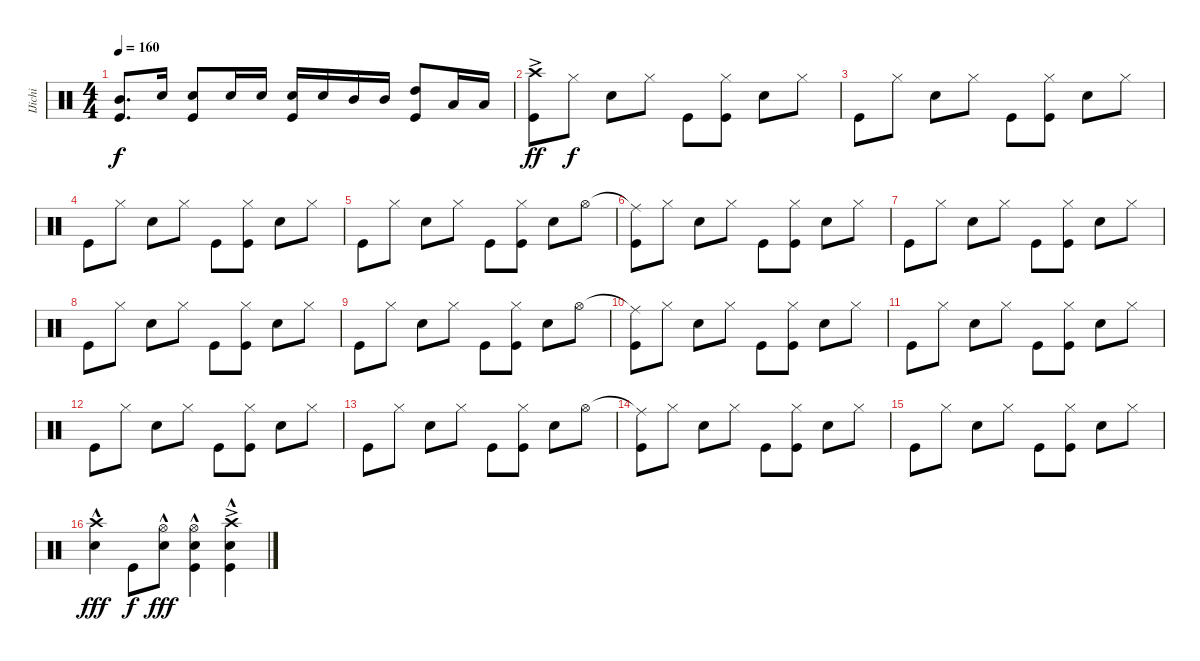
\track ("IJichi" "IJichi") {instrument percussion}
\staff {score}
\articulation defaults
\ts (4 4)
\tempo 160
\clef neutral
\ks c
("Mid Tom (hit)" "Kick (hit)").8{d dy f} "Snare (hit) 2".16 ("Snare (hit) 2" "Kick (hit)").8 "Snare (hit) 2".16 "Snare (hit) 2".16 ("Snare (hit) 2" "Kick (hit)").16 "Snare (hit) 2".16 "Mid Tom (hit)".16 "Mid Tom (hit)".16 ("High Tom (hit)" "Kick (hit)").8 "Low Tom (hit)".16 "Low Tom (hit)".16 |
("Crash high (hit)"{ac} "Kick (hit)").8{dy ff} "Hi-Hat (closed)".8{dy f} "Snare (hit) 2".8 "Hi-Hat (closed)".8 "Kick (hit)".8 ("Hi-Hat (closed)" "Kick (hit)").8 "Snare (hit) 2".8 "Hi-Hat (closed)".8 |
"Kick (hit)".8 "Hi-Hat (closed)".8 "Snare (hit) 2".8 "Hi-Hat (closed)".8 "Kick (hit)".8 ("Hi-Hat (closed)" "Kick (hit)").8 "Snare (hit) 2".8 "Hi-Hat (closed)".8 |
"Kick (hit)".8 "Hi-Hat (closed)".8 "Snare (hit) 2".8 "Hi-Hat (closed)".8 "Kick (hit)".8 ("Hi-Hat (closed)" "Kick (hit)").8 "Snare (hit) 2".8 "Hi-Hat (closed)".8 |
"Kick (hit)".8 "Hi-Hat (closed)".8 "Snare (hit) 2".8 "Hi-Hat (closed)".8 "Kick (hit)".8 ("Hi-Hat (closed)" "Kick (hit)").8 "Snare (hit) 2".8 "Hi-Hat (open)".8 |
("Ride (middle)"{t} "Kick (hit)").8 "Hi-Hat (closed)".8 "Snare (hit) 2".8 "Hi-Hat (closed)".8 "Kick (hit)".8 ("Hi-Hat (closed)" "Kick (hit)").8 "Snare (hit) 2".8 "Hi-Hat (closed)".8 |
"Kick (hit)".8 "Hi-Hat (closed)".8 "Snare (hit) 2".8 "Hi-Hat (closed)".8 "Kick (hit)".8 ("Hi-Hat (closed)" "Kick (hit)").8 "Snare (hit) 2".8 "Hi-Hat (closed)".8 |
"Kick (hit)".8 "Hi-Hat (closed)".8 "Snare (hit) 2".8 "Hi-Hat (closed)".8 "Kick (hit)".8 ("Hi-Hat (closed)" "Kick (hit)").8 "Snare (hit) 2".8 "Hi-Hat (closed)".8 |
"Kick (hit)".8 "Hi-Hat (closed)".8 "Snare (hit) 2".8 "Hi-Hat (closed)".8 "Kick (hit)".8 ("Hi-Hat (closed)" "Kick (hit)").8 "Snare (hit) 2".8 "Hi-Hat (open)".8 |
("Ride (middle)"{t} "Kick (hit)").8 "Hi-Hat (closed)".8 "Snare (hit) 2".8 "Hi-Hat (closed)".8 "Kick (hit)".8 ("Hi-Hat (closed)" "Kick (hit)").8 "Snare (hit) 2".8 "Hi-Hat (closed)".8 |
"Kick (hit)".8 "Hi-Hat (closed)".8 "Snare (hit) 2".8 "Hi-Hat (closed)".8 "Kick (hit)".8 ("Hi-Hat (closed)" "Kick (hit)").8 "Snare (hit) 2".8 "Hi-Hat (closed)".8 |
"Kick (hit)".8 "Hi-Hat (closed)".8 "Snare (hit) 2".8 "Hi-Hat (closed)".8 "Kick (hit)".8 ("Hi-Hat (closed)" "Kick (hit)").8 "Snare (hit) 2".8 "Hi-Hat (closed)".8 |
"Kick (hit)".8 "Hi-Hat (closed)".8 "Snare (hit) 2".8 "Hi-Hat (closed)".8 "Kick (hit)".8 ("Hi-Hat (closed)" "Kick (hit)").8 "Snare (hit) 2".8 "Hi-Hat (open)".8 |
("Ride (middle)"{t} "Kick (hit)").8 "Hi-Hat (closed)".8 "Snare (hit) 2".8 "Hi-Hat (closed)".8 "Kick (hit)".8 ("Hi-Hat (closed)" "Kick (hit)").8 "Snare (hit) 2".8 "Hi-Hat (closed)".8 |
"Kick (hit)".8 "Hi-Hat (closed)".8 "Snare (hit) 2".8 "Hi-Hat (closed)".8 "Kick (hit)".8 ("Hi-Hat (closed)" "Kick (hit)").8 "Snare (hit) 2".8 "Hi-Hat (closed)".8 |
("Crash high (hit)" "Snare (hit) 2"{hac}).4{dy fff} "Kick (hit)".8{dy f} ("Hi-Hat (open)" "Snare (hit) 2"{hac}).8{dy fff} ("Hi-Hat (open)" "Snare (hit) 2"{hac} "Kick (hit)").4 ("Crash high (hit)"{ac} "Snare (hit) 2"{hac} "Kick (hit)").4
